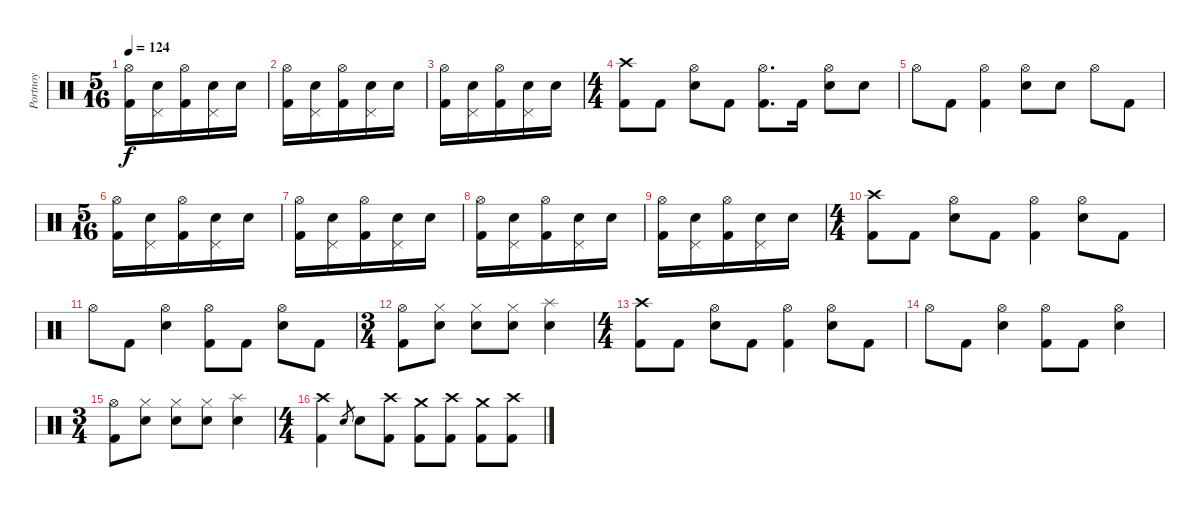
\track ("Portnoy" "Portnoy") {instrument percussion}
\staff {score}
\articulation defaults
\ts (5 16)
\tempo 124
\clef neutral
\ks c
("Hi-Hat (open)" "Kick (hit) 2").16{dy f beam merge} ("Electric Snare (hit)" "Pedal Hi-Hat (hit)").16 ("Hi-Hat (open)" "Kick (hit) 2").16{beam merge} ("Electric Snare (hit)" "Pedal Hi-Hat (hit)").16{beam merge} "Electric Snare (hit)".16 |
("Hi-Hat (open)" "Kick (hit) 2").16{beam merge} ("Electric Snare (hit)" "Pedal Hi-Hat (hit)").16 ("Hi-Hat (open)" "Kick (hit) 2").16{beam merge} ("Electric Snare (hit)" "Pedal Hi-Hat (hit)").16{beam merge} "Electric Snare (hit)".16 |
("Hi-Hat (open)" "Kick (hit) 2").16{beam merge} ("Electric Snare (hit)" "Pedal Hi-Hat (hit)").16 ("Hi-Hat (open)" "Kick (hit) 2").16{beam merge} ("Electric Snare (hit)" "Pedal Hi-Hat (hit)").16{beam merge} "Electric Snare (hit)".16 |
\ts (4 4)
("Crash high (hit)" "Kick (hit) 2").8 "Kick (hit) 2".8 ("Hi-Hat (open)" "Electric Snare (hit)").8 "Kick (hit) 2".8 ("Hi-Hat (open)" "Kick (hit) 2").8{d} "Kick (hit) 2".16 ("Hi-Hat (open)" "Electric Snare (hit)").8 "Electric Snare (hit)".8 |
"Hi-Hat (open)".8 "Kick (hit) 2".8 ("Hi-Hat (open)" "Kick (hit) 2").4 ("Hi-Hat (open)" "Electric Snare (hit)").8 "Electric Snare (hit)".8 "Hi-Hat (open)".8 "Kick (hit) 2".8 |
\ts (5 16)
("Hi-Hat (open)" "Kick (hit) 2").16{beam merge} ("Electric Snare (hit)" "Pedal Hi-Hat (hit)").16 ("Hi-Hat (open)" "Kick (hit) 2").16{beam merge} ("Electric Snare (hit)" "Pedal Hi-Hat (hit)").16{beam merge} "Electric Snare (hit)".16 |
("Hi-Hat (open)" "Kick (hit) 2").16{beam merge} ("Electric Snare (hit)" "Pedal Hi-Hat (hit)").16 ("Hi-Hat (open)" "Kick (hit) 2").16{beam merge} ("Electric Snare (hit)" "Pedal Hi-Hat (hit)").16{beam merge} "Electric Snare (hit)".16 |
("Hi-Hat (open)" "Kick (hit) 2").16{beam merge} ("Electric Snare (hit)" "Pedal Hi-Hat (hit)").16 ("Hi-Hat (open)" "Kick (hit) 2").16{beam merge} ("Electric Snare (hit)" "Pedal Hi-Hat (hit)").16{beam merge} "Electric Snare (hit)".16 |
("Hi-Hat (open)" "Kick (hit) 2").16{beam merge} ("Electric Snare (hit)" "Pedal Hi-Hat (hit)").16 ("Hi-Hat (open)" "Kick (hit) 2").16{beam merge} ("Electric Snare (hit)" "Pedal Hi-Hat (hit)").16{beam merge} "Electric Snare (hit)".16 |
\ts (4 4)
("Crash high (hit)" "Kick (hit) 2").8 "Kick (hit) 2".8 ("Hi-Hat (open)" "Electric Snare (hit)").8 "Kick (hit) 2".8 ("Hi-Hat (open)" "Kick (hit) 2").4 ("Hi-Hat (open)" "Electric Snare (hit)").8 "Kick (hit) 2".8 |
"Hi-Hat (open)".8 "Kick (hit) 2".8 ("Hi-Hat (open)" "Electric Snare (hit)").4 ("Hi-Hat (open)" "Kick (hit) 2").8 "Kick (hit) 2".8 ("Hi-Hat (open)" "Electric Snare (hit)").8 "Kick (hit) 2".8 |
\ts (3 4)
("Hi-Hat (open)" "Kick (hit) 2").8 ("Hi-Hat (closed)" "Electric Snare (hit)").8 ("Hi-Hat (closed)" "Electric Snare (hit)").8 ("Hi-Hat (closed)" "Electric Snare (hit)").8 ("Splash (hit)" "Electric Snare (hit)").4 |
\ts (4 4)
("Crash high (hit)" "Kick (hit) 2").8 "Kick (hit) 2".8 ("Hi-Hat (open)" "Electric Snare (hit)").8 "Kick (hit) 2".8 ("Hi-Hat (open)" "Kick (hit) 2").4 ("Hi-Hat (open)" "Electric Snare (hit)").8 "Kick (hit) 2".8 |
"Hi-Hat (open)".8 "Kick (hit) 2".8 ("Hi-Hat (open)" "Electric Snare (hit)").4 ("Hi-Hat (open)" "Kick (hit) 2").8 "Kick (hit) 2".8 ("Hi-Hat (open)" "Electric Snare (hit)").4 |
\ts (3 4)
("Hi-Hat (open)" "Kick (hit) 2").8 ("Hi-Hat (closed)" "Electric Snare (hit)").8 ("Hi-Hat (closed)" "Electric Snare (hit)").8 ("Hi-Hat (closed)" "Electric Snare (hit)").8 ("Splash (hit)" "Electric Snare (hit)").4 |
\ts (4 4)
("Crash high (hit)" "Kick (hit) 2").4 "Electric Snare (hit)".8{gr} "Electric Snare (hit)".8 ("Crash high (hit)" "Kick (hit) 2").8 ("Crash medium (hit)" "Kick (hit) 2").8 ("Crash high (hit)" "Kick (hit) 2").8 ("Crash medium (hit)" "Kick (hit) 2").8 ("Crash high (hit)" "Kick (hit) 2").8
